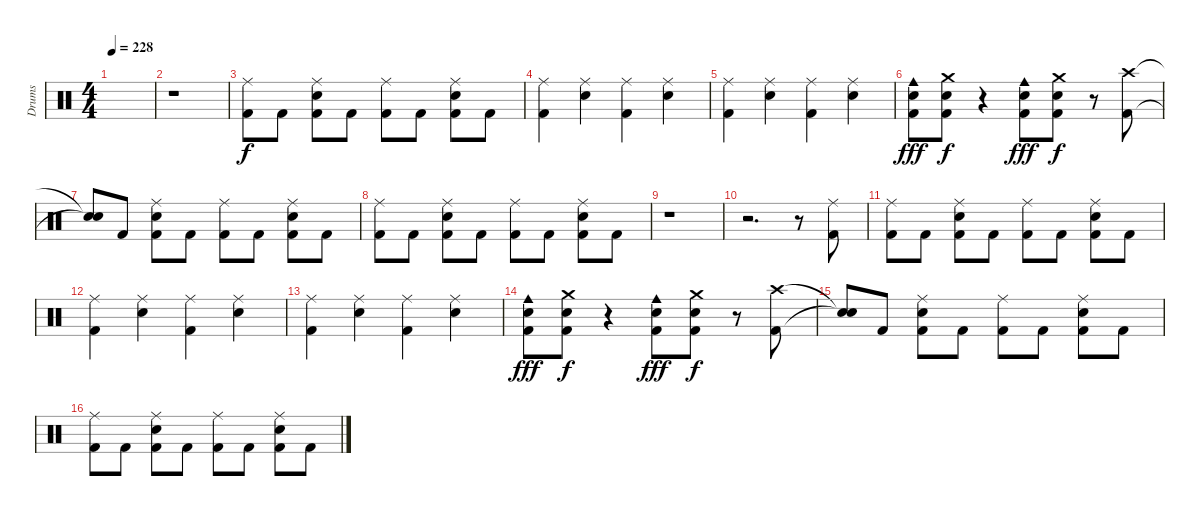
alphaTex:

\track ("Drums" "Drums") {instrument percussion}
\staff {score}
\articulation defaults
\ts (4 4)
\tempo 228
\clef neutral
\ks c
|
r.1 |
("Ride (middle)" "Kick (hit) 2").8 "Kick (hit) 2".8 ("Ride (middle)" "Electric Snare (hit)" "Kick (hit) 2").8 "Kick (hit) 2".8 ("Ride (middle)" "Kick (hit) 2").8 "Kick (hit) 2".8 ("Ride (middle)" "Electric Snare (hit)" "Kick (hit) 2").8 "Kick (hit) 2".8 |
("Ride (middle)" "Kick (hit) 2").4 ("Ride (middle)" "Electric Snare (hit)").4 ("Ride (middle)" "Kick (hit) 2").4 ("Ride (middle)" "Electric Snare (hit)").4 |
("Ride (middle)" "Kick (hit) 2").4 ("Ride (middle)" "Electric Snare (hit)").4 ("Ride (middle)" "Kick (hit) 2").4 ("Ride (middle)" "Electric Snare (hit)").4 |
("Cowbell medium (hit)" "Electric Snare (hit)" "Kick (hit) 2").8{dy fff} ("Crash medium (hit)" "Electric Snare (hit)" "Kick (hit) 2").8{dy f} r.4 ("Cowbell medium (hit)" "Electric Snare (hit)" "Kick (hit) 2").8{dy fff} ("Crash medium (hit)" "Electric Snare (hit)" "Kick (hit) 2").8{dy f} r.8 ("Crash high (hit)" "Kick (hit) 2").8 |
("Snare (hit)"{t} "Snare (hit)"{t}).8 "Kick (hit) 2".8 ("Ride (middle)" "Electric Snare (hit)" "Kick (hit) 2").8 "Kick (hit) 2".8 ("Ride (middle)" "Kick (hit) 2").8 "Kick (hit) 2".8 ("Ride (middle)" "Electric Snare (hit)" "Kick (hit) 2").8 "Kick (hit) 2".8 |
("Ride (middle)" "Kick (hit) 2").8 "Kick (hit) 2".8 ("Ride (middle)" "Electric Snare (hit)" "Kick (hit) 2").8 "Kick (hit) 2".8 ("Ride (middle)" "Kick (hit) 2").8 "Kick (hit) 2".8 ("Ride (middle)" "Electric Snare (hit)" "Kick (hit) 2").8 "Kick (hit) 2".8 |
r.1 |
r.2{d} r.8 ("Ride (middle)" "Kick (hit) 2").8 |
("Ride (middle)" "Kick (hit) 2").8 "Kick (hit) 2".8 ("Ride (middle)" "Electric Snare (hit)" "Kick (hit) 2").8 "Kick (hit) 2".8 ("Ride (middle)" "Kick (hit) 2").8 "Kick (hit) 2".8 ("Ride (middle)" "Electric Snare (hit)" "Kick (hit) 2").8 "Kick (hit) 2".8 |
("Ride (middle)" "Kick (hit) 2").4 ("Ride (middle)" "Electric Snare (hit)").4 ("Ride (middle)" "Kick (hit) 2").4 ("Ride (middle)" "Electric Snare (hit)").4 |
("Ride (middle)" "Kick (hit) 2").4 ("Ride (middle)" "Electric Snare (hit)").4 ("Ride (middle)" "Kick (hit) 2").4 ("Ride (middle)" "Electric Snare (hit)").4 |
("Cowbell medium (hit)" "Electric Snare (hit)" "Kick (hit) 2").8{dy fff} ("Crash medium (hit)" "Electric Snare (hit)" "Kick (hit) 2").8{dy f} r.4 ("Cowbell medium (hit)" "Electric Snare (hit)" "Kick (hit) 2").8{dy fff} ("Crash medium (hit)" "Electric Snare (hit)" "Kick (hit) 2").8{dy f} r.8 ("Crash high (hit)" "Kick (hit) 2").8 |
("Snare (hit)"{t} "Snare (hit)"{t}).8 "Kick (hit) 2".8 ("Ride (middle)" "Electric Snare (hit)" "Kick (hit) 2").8 "Kick (hit) 2".8 ("Ride (middle)" "Kick (hit) 2").8 "Kick (hit) 2".8 ("Ride (middle)" "Electric Snare (hit)" "Kick (hit) 2").8 "Kick (hit) 2".8 |
("Ride (middle)" "Kick (hit) 2").8 "Kick (hit) 2".8 ("Ride (middle)" "Electric Snare (hit)" "Kick (hit) 2").8 "Kick (hit) 2".8 ("Ride (middle)" "Kick (hit) 2").8 "Kick (hit) 2".8 ("Ride (middle)" "Electric Snare (hit)" "Kick (hit) 2").8 "Kick (hit) 2".8
